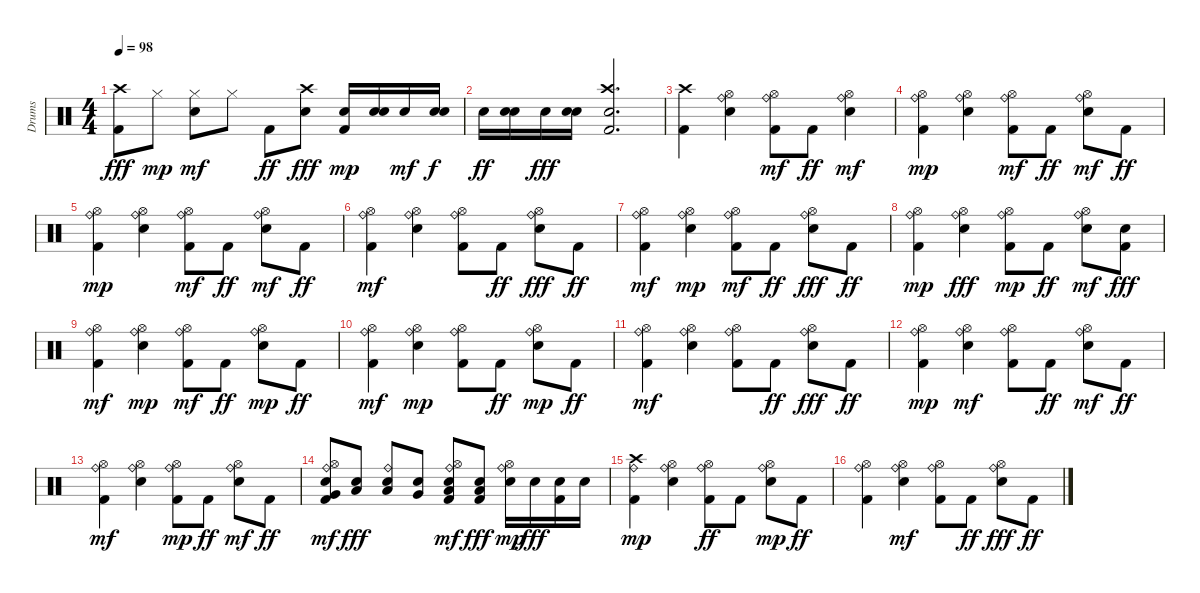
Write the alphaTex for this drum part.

\track ("Drums" "Drums") {instrument percussion}
\staff {score}
\articulation defaults
\ts (4 4)
\tempo 98
\clef neutral
\ks c
("Kick (hit) 2" "Crash high (hit)").8{dy fff} "Hi-Hat (closed)".8{dy mp} ("Electric Snare (hit)" "Hi-Hat (closed)").8{dy mf} "Hi-Hat (closed)".8 "Kick (hit) 2".8{dy ff} ("Electric Snare (hit)" "Crash high (hit)").8{dy fff} ("Kick (hit) 2" "Electric Snare (hit)").16{dy mp} ("Electric Snare (hit)" "Electric Snare (hit)").16 "Electric Snare (hit)".16{dy mf} ("Electric Snare (hit)" "Electric Snare (hit)").16{dy f} |
"Electric Snare (hit)".16{dy ff} ("Electric Snare (hit)" "Electric Snare (hit)").16 "Electric Snare (hit)".16{dy fff} ("Electric Snare (hit)" "Electric Snare (hit)").16 ("Kick (hit) 2" "Electric Snare (hit)" "Crash high (hit)").2{d} |
("Kick (hit) 2" "Crash high (hit)").4 ("Electric Snare (hit)" "Hi-Hat (open)" "Ride (bell)").4 ("Kick (hit) 2" "Hi-Hat (open)" "Ride (bell)").8{dy mf} "Kick (hit) 2".8{dy ff} ("Electric Snare (hit)" "Hi-Hat (open)" "Ride (bell)").4{dy mf} |
("Kick (hit) 2" "Hi-Hat (open)" "Ride (bell)").4{dy mp} ("Electric Snare (hit)" "Hi-Hat (open)" "Ride (bell)").4 ("Kick (hit) 2" "Hi-Hat (open)" "Ride (bell)").8{dy mf} "Kick (hit) 2".8{dy ff} ("Electric Snare (hit)" "Hi-Hat (open)" "Ride (bell)").8{dy mf} "Kick (hit) 2".8{dy ff} |
("Kick (hit) 2" "Hi-Hat (open)" "Ride (bell)").4{dy mp} ("Electric Snare (hit)" "Hi-Hat (open)" "Ride (bell)").4 ("Kick (hit) 2" "Hi-Hat (open)" "Ride (bell)").8{dy mf} "Kick (hit) 2".8{dy ff} ("Electric Snare (hit)" "Hi-Hat (open)" "Ride (bell)").8{dy mf} "Kick (hit) 2".8{dy ff} |
("Kick (hit) 2" "Hi-Hat (open)" "Ride (bell)").4{dy mf} ("Electric Snare (hit)" "Hi-Hat (open)" "Ride (bell)").4 ("Kick (hit) 2" "Hi-Hat (open)" "Ride (bell)").8 "Kick (hit) 2".8{dy ff} ("Electric Snare (hit)" "Hi-Hat (open)" "Ride (bell)").8{dy fff} "Kick (hit) 2".8{dy ff} |
("Kick (hit) 2" "Hi-Hat (open)" "Ride (bell)").4{dy mf} ("Electric Snare (hit)" "Hi-Hat (open)" "Ride (bell)").4{dy mp} ("Kick (hit) 2" "Hi-Hat (open)" "Ride (bell)").8{dy mf} "Kick (hit) 2".8{dy ff} ("Electric Snare (hit)" "Hi-Hat (open)" "Ride (bell)").8{dy fff} "Kick (hit) 2".8{dy ff} |
("Kick (hit) 2" "Hi-Hat (open)" "Ride (bell)").4{dy mp} ("Electric Snare (hit)" "Hi-Hat (open)" "Ride (bell)").4{dy fff} ("Kick (hit) 2" "Hi-Hat (open)" "Ride (bell)").8{dy mp} "Kick (hit) 2".8{dy ff} ("Electric Snare (hit)" "Hi-Hat (open)" "Ride (bell)").8{dy mf} ("Kick (hit) 2" "Electric Snare (hit)").8{dy fff} |
("Kick (hit) 2" "Hi-Hat (open)" "Ride (bell)").4{dy mf} ("Electric Snare (hit)" "Hi-Hat (open)" "Ride (bell)").4{dy mp} ("Kick (hit) 2" "Hi-Hat (open)" "Ride (bell)").8{dy mf} "Kick (hit) 2".8{dy ff} ("Electric Snare (hit)" "Hi-Hat (open)" "Ride (bell)").8{dy mp} "Kick (hit) 2".8{dy ff} |
("Kick (hit) 2" "Hi-Hat (open)" "Ride (bell)").4{dy mf} ("Electric Snare (hit)" "Hi-Hat (open)" "Ride (bell)").4{dy mp} ("Kick (hit) 2" "Hi-Hat (open)" "Ride (bell)").8 "Kick (hit) 2".8{dy ff} ("Electric Snare (hit)" "Hi-Hat (open)" "Ride (bell)").8{dy mp} "Kick (hit) 2".8{dy ff} |
("Kick (hit) 2" "Hi-Hat (open)" "Ride (bell)").4{dy mf} ("Electric Snare (hit)" "Hi-Hat (open)" "Ride (bell)").4 ("Kick (hit) 2" "Hi-Hat (open)" "Ride (bell)").8 "Kick (hit) 2".8{dy ff} ("Electric Snare (hit)" "Hi-Hat (open)" "Ride (bell)").8{dy fff} "Kick (hit) 2".8{dy ff} |
("Kick (hit) 2" "Hi-Hat (open)" "Ride (bell)").4{dy mp} ("Electric Snare (hit)" "Hi-Hat (open)" "Ride (bell)").4{dy mf} ("Kick (hit) 2" "Hi-Hat (open)" "Ride (bell)").8 "Kick (hit) 2".8{dy ff} ("Electric Snare (hit)" "Hi-Hat (open)" "Ride (bell)").8{dy mf} "Kick (hit) 2".8{dy ff} |
("Kick (hit) 2" "Hi-Hat (open)" "Ride (bell)").4{dy mf} ("Electric Snare (hit)" "Hi-Hat (open)" "Ride (bell)").4 ("Kick (hit) 2" "Hi-Hat (open)" "Ride (bell)").8{dy mp} "Kick (hit) 2".8{dy ff} ("Electric Snare (hit)" "Hi-Hat (open)" "Ride (bell)").8{dy mf} "Kick (hit) 2".8{dy ff} |
("Kick (hit) 2" "Electric Snare (hit)" "Very Low Tom (hit)" "Hi-Hat (open)" "Ride (bell)").8{dy mf} ("Electric Snare (hit)" "Low Floor Tom (hit)").8{dy fff} ("Electric Snare (hit)" "Low Tom (hit)" "Ride (bell)").8 ("Electric Snare (hit)" "Very Low Tom (hit)").8 ("Kick (hit) 2" "Electric Snare (hit)" "Low Floor Tom (hit)" "Hi-Hat (open)" "Ride (bell)").8{dy mf} ("Kick (hit) 2" "Electric Snare (hit)" "Low Tom (hit)").8{dy fff} ("Electric Snare (hit)" "Hi-Hat (open)" "Ride (bell)").16{dy mp} "Electric Snare (hit)".16{dy fff} ("Kick (hit) 2" "Electric Snare (hit)").16 "Electric Snare (hit)".16 |
("Kick (hit) 2" "Crash high (hit)" "Ride (bell)").4{dy mp} ("Electric Snare (hit)" "Hi-Hat (open)" "Ride (bell)").4 ("Kick (hit) 2" "Hi-Hat (open)" "Ride (bell)").8{dy ff} "Kick (hit) 2".8 ("Electric Snare (hit)" "Hi-Hat (open)" "Ride (bell)").8{dy mp} "Kick (hit) 2".8{dy ff} |
("Kick (hit) 2" "Hi-Hat (open)" "Ride (bell)").4 ("Electric Snare (hit)" "Hi-Hat (open)" "Ride (bell)").4{dy mf} ("Kick (hit) 2" "Hi-Hat (open)" "Ride (bell)").8 "Kick (hit) 2".8{dy ff} ("Electric Snare (hit)" "Hi-Hat (open)" "Ride (bell)").8{dy fff} "Kick (hit) 2".8{dy ff}
